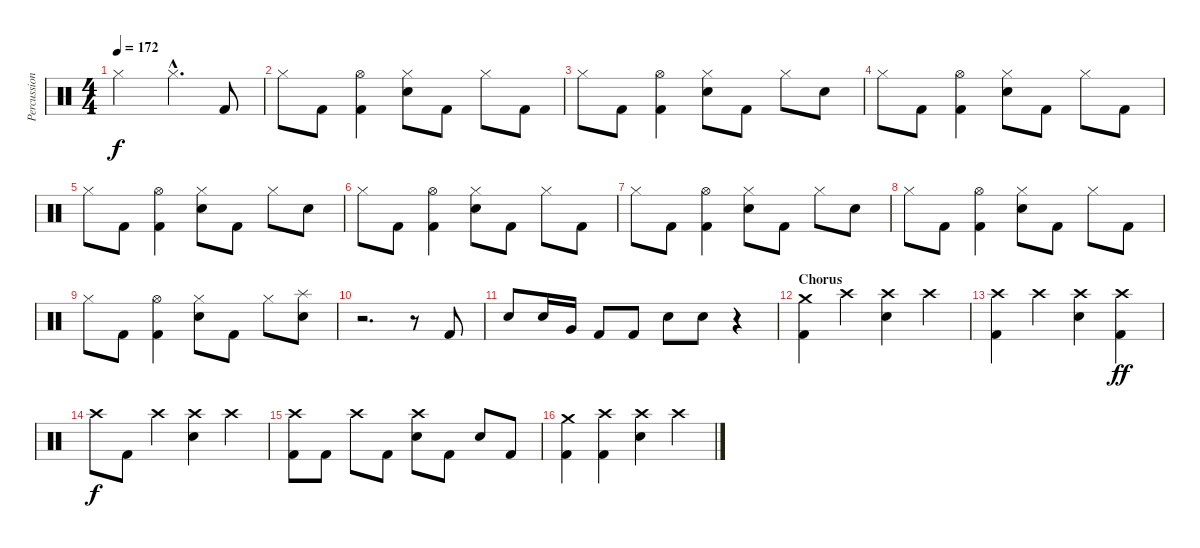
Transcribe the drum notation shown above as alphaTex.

\track ("Percussion" "Percussion") {instrument percussion}
\staff {score}
\articulation defaults
\ts (4 4)
\tempo 172
\clef neutral
\ks c "Hi-Hat (closed)".2{dy f} "Hi-Hat (closed)"{hac}.4{d} "Kick (hit) 2".8
|
"Hi-Hat (closed)".8 "Kick (hit) 2".8 ("Hi-Hat (open)" "Kick (hit) 2").4 ("Hi-Hat (closed)" "Electric Snare (hit)").8 "Kick (hit) 2".8 "Hi-Hat (closed)".8 "Kick (hit) 2".8 |
"Hi-Hat (closed)".8 "Kick (hit) 2".8 ("Hi-Hat (open)" "Kick (hit) 2").4 ("Hi-Hat (closed)" "Electric Snare (hit)").8 "Kick (hit) 2".8 "Hi-Hat (closed)".8 "Electric Snare (hit)".8 |
"Hi-Hat (closed)".8 "Kick (hit) 2".8 ("Hi-Hat (open)" "Kick (hit) 2").4 ("Hi-Hat (closed)" "Electric Snare (hit)").8 "Kick (hit) 2".8 "Hi-Hat (closed)".8 "Kick (hit) 2".8 |
"Hi-Hat (closed)".8 "Kick (hit) 2".8 ("Hi-Hat (open)" "Kick (hit) 2").4 ("Hi-Hat (closed)" "Electric Snare (hit)").8 "Kick (hit) 2".8 "Hi-Hat (closed)".8 "Electric Snare (hit)".8 |
"Hi-Hat (closed)".8 "Kick (hit) 2".8 ("Hi-Hat (open)" "Kick (hit) 2").4 ("Hi-Hat (closed)" "Electric Snare (hit)").8 "Kick (hit) 2".8 "Hi-Hat (closed)".8 "Kick (hit) 2".8 |
"Hi-Hat (closed)".8 "Kick (hit) 2".8 ("Hi-Hat (open)" "Kick (hit) 2").4 ("Hi-Hat (closed)" "Electric Snare (hit)").8 "Kick (hit) 2".8 "Hi-Hat (closed)".8 "Electric Snare (hit)".8 |
"Hi-Hat (closed)".8 "Kick (hit) 2".8 ("Hi-Hat (open)" "Kick (hit) 2").4 ("Hi-Hat (closed)" "Electric Snare (hit)").8 "Kick (hit) 2".8 "Hi-Hat (closed)".8 "Kick (hit) 2".8 |
"Hi-Hat (closed)".8 "Kick (hit) 2".8 ("Hi-Hat (open)" "Kick (hit) 2").4 ("Hi-Hat (closed)" "Electric Snare (hit)").8 "Kick (hit) 2".8 "Hi-Hat (closed)".8 ("Splash (hit)" "Electric Snare (hit)").8 |
r.2{d} r.8 "Kick (hit) 2".8 |
"Electric Snare (hit)".8 "Electric Snare (hit)".16 "Very Low Tom (hit)".16 "Kick (hit) 2".8 "Kick (hit) 2".8 "Electric Snare (hit)".8 "Electric Snare (hit)".8 r.4 |
\section ("" "Chorus")
("Crash medium (hit)" "Kick (hit) 2").4 "Crash high (hit)".4 ("Crash high (hit)" "Electric Snare (hit)").4 "Crash high (hit)".4 |
("Crash high (hit)" "Kick (hit) 2").4 "Crash high (hit)".4 ("Crash high (hit)" "Electric Snare (hit)").4 ("Crash high (hit)" "Kick (hit) 2").4{dy ff} |
"Crash high (hit)".8{dy f} "Kick (hit) 2".8 "Crash high (hit)".4 ("Crash high (hit)" "Electric Snare (hit)").4 "Crash high (hit)".4 |
("Crash high (hit)" "Kick (hit) 2").8 "Kick (hit) 2".8 "Crash high (hit)".8 "Kick (hit) 2".8 ("Crash high (hit)" "Electric Snare (hit)").8 "Kick (hit) 2".8 "Electric Snare (hit)".8 "Kick (hit) 2".8 |
("Crash medium (hit)" "Kick (hit) 2").4 ("Crash high (hit)" "Kick (hit) 2").4 ("Crash high (hit)" "Electric Snare (hit)").4 "Crash high (hit)".4
